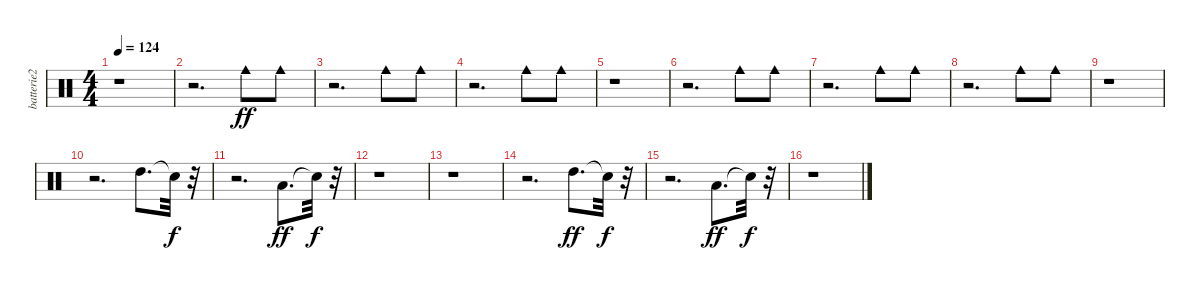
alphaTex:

\track ("batterie2" "batterie2") {instrument percussion}
\staff {score}
\articulation defaults
\ts (4 4)
\tempo 124
\clef neutral
\ks c
r.1{dy ff} |
r.2{d} "Cowbell medium (hit)".8 "Cowbell medium (hit)".8 |
r.2{d} "Cowbell medium (hit)".8 "Cowbell medium (hit)".8 |
r.2{d} "Cowbell medium (hit)".8 "Cowbell medium (hit)".8 |
r.1 |
r.2{d} "Cowbell medium (hit)".8 "Cowbell medium (hit)".8 |
r.2{d} "Cowbell medium (hit)".8 "Cowbell medium (hit)".8 |
r.2{d} "Cowbell medium (hit)".8 "Cowbell medium (hit)".8 |
r.1 |
r.2{d} "High Tom (hit)".8{d} "Snare (hit)"{t}.32{dy f} r.32 |
r.2{d} "Low Floor Tom (hit)".8{d dy ff} "Snare (hit)"{t}.32{dy f} r.32 |
r.1 |
r.1 |
r.2{d} "High Tom (hit)".8{d dy ff} "Snare (hit)"{t}.32{dy f} r.32 |
r.2{d} "Low Floor Tom (hit)".8{d dy ff} "Snare (hit)"{t}.32{dy f} r.32 |
r.1
